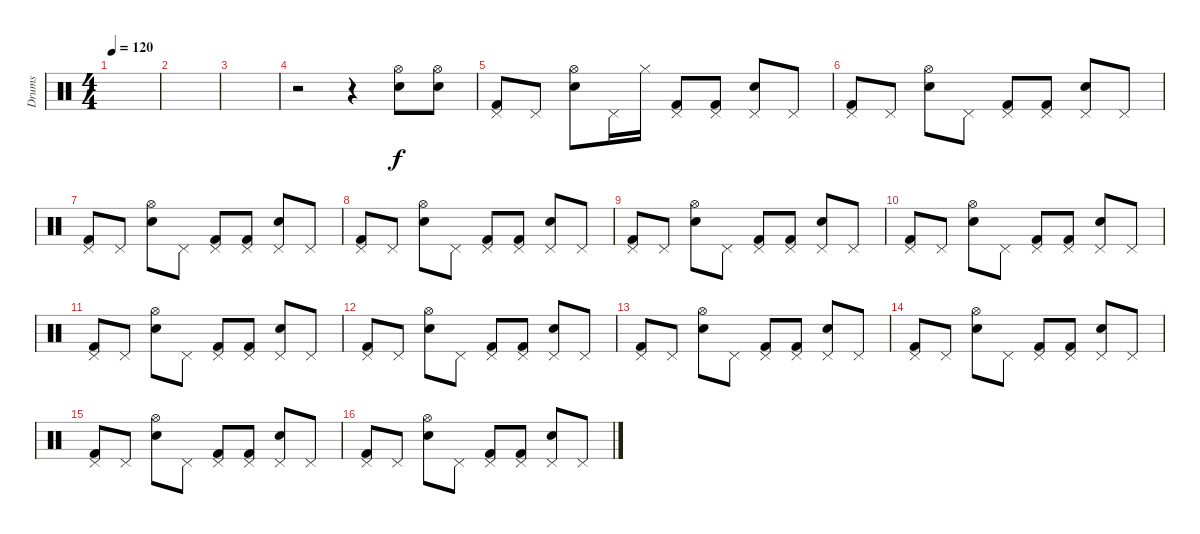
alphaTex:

\track ("Drums" "Drums") {instrument percussion}
\staff {score}
\articulation defaults
\ts (4 4)
\tempo 120
\clef neutral
\ks c
|
|
|
r.2 r.4 ("Hi-Hat (open)" "Electric Snare (hit)").8 ("Hi-Hat (open)" "Snare (hit) 2").8 |
("Pedal Hi-Hat (hit)" "Kick (hit) 2").8 "Pedal Hi-Hat (hit)".8 ("Hi-Hat (open)" "Snare (hit) 2").8 "Pedal Hi-Hat (hit)".16 "Hi-Hat (closed)".16 ("Pedal Hi-Hat (hit)" "Kick (hit) 2").8 ("Pedal Hi-Hat (hit)" "Kick (hit) 2").8 ("Pedal Hi-Hat (hit)" "Snare (hit) 2").8 "Pedal Hi-Hat (hit)".8 |
("Pedal Hi-Hat (hit)" "Kick (hit) 2").8 "Pedal Hi-Hat (hit)".8 ("Hi-Hat (open)" "Snare (hit) 2").8 "Pedal Hi-Hat (hit)".8 ("Pedal Hi-Hat (hit)" "Kick (hit) 2").8 ("Pedal Hi-Hat (hit)" "Kick (hit) 2").8 ("Pedal Hi-Hat (hit)" "Snare (hit) 2").8 "Pedal Hi-Hat (hit)".8 |
("Pedal Hi-Hat (hit)" "Kick (hit) 2").8 "Pedal Hi-Hat (hit)".8 ("Hi-Hat (open)" "Snare (hit) 2").8 "Pedal Hi-Hat (hit)".8 ("Pedal Hi-Hat (hit)" "Kick (hit) 2").8 ("Pedal Hi-Hat (hit)" "Kick (hit) 2").8 ("Pedal Hi-Hat (hit)" "Snare (hit) 2").8 "Pedal Hi-Hat (hit)".8 |
("Pedal Hi-Hat (hit)" "Kick (hit) 2").8 "Pedal Hi-Hat (hit)".8 ("Hi-Hat (open)" "Snare (hit) 2").8 "Pedal Hi-Hat (hit)".8 ("Pedal Hi-Hat (hit)" "Kick (hit) 2").8 ("Pedal Hi-Hat (hit)" "Kick (hit) 2").8 ("Pedal Hi-Hat (hit)" "Snare (hit) 2").8 "Pedal Hi-Hat (hit)".8 |
("Pedal Hi-Hat (hit)" "Kick (hit) 2").8 "Pedal Hi-Hat (hit)".8 ("Hi-Hat (open)" "Snare (hit) 2").8 "Pedal Hi-Hat (hit)".8 ("Pedal Hi-Hat (hit)" "Kick (hit) 2").8 ("Pedal Hi-Hat (hit)" "Kick (hit) 2").8 ("Pedal Hi-Hat (hit)" "Snare (hit) 2").8 "Pedal Hi-Hat (hit)".8 |
("Pedal Hi-Hat (hit)" "Kick (hit) 2").8 "Pedal Hi-Hat (hit)".8 ("Hi-Hat (open)" "Snare (hit) 2").8 "Pedal Hi-Hat (hit)".8 ("Pedal Hi-Hat (hit)" "Kick (hit) 2").8 ("Pedal Hi-Hat (hit)" "Kick (hit) 2").8 ("Pedal Hi-Hat (hit)" "Snare (hit) 2").8 "Pedal Hi-Hat (hit)".8 |
("Pedal Hi-Hat (hit)" "Kick (hit) 2").8 "Pedal Hi-Hat (hit)".8 ("Hi-Hat (open)" "Snare (hit) 2").8 "Pedal Hi-Hat (hit)".8 ("Pedal Hi-Hat (hit)" "Kick (hit) 2").8 ("Pedal Hi-Hat (hit)" "Kick (hit) 2").8 ("Pedal Hi-Hat (hit)" "Snare (hit) 2").8 "Pedal Hi-Hat (hit)".8 |
("Pedal Hi-Hat (hit)" "Kick (hit) 2").8 "Pedal Hi-Hat (hit)".8 ("Hi-Hat (open)" "Snare (hit) 2").8 "Pedal Hi-Hat (hit)".8 ("Pedal Hi-Hat (hit)" "Kick (hit) 2").8 ("Pedal Hi-Hat (hit)" "Kick (hit) 2").8 ("Pedal Hi-Hat (hit)" "Snare (hit) 2").8 "Pedal Hi-Hat (hit)".8 |
("Pedal Hi-Hat (hit)" "Kick (hit) 2").8 "Pedal Hi-Hat (hit)".8 ("Hi-Hat (open)" "Snare (hit) 2").8 "Pedal Hi-Hat (hit)".8 ("Pedal Hi-Hat (hit)" "Kick (hit) 2").8 ("Pedal Hi-Hat (hit)" "Kick (hit) 2").8 ("Pedal Hi-Hat (hit)" "Snare (hit) 2").8 "Pedal Hi-Hat (hit)".8 |
("Pedal Hi-Hat (hit)" "Kick (hit) 2").8 "Pedal Hi-Hat (hit)".8 ("Hi-Hat (open)" "Snare (hit) 2").8 "Pedal Hi-Hat (hit)".8 ("Pedal Hi-Hat (hit)" "Kick (hit) 2").8 ("Pedal Hi-Hat (hit)" "Kick (hit) 2").8 ("Pedal Hi-Hat (hit)" "Snare (hit) 2").8 "Pedal Hi-Hat (hit)".8 |
("Pedal Hi-Hat (hit)" "Kick (hit) 2").8 "Pedal Hi-Hat (hit)".8 ("Hi-Hat (open)" "Snare (hit) 2").8 "Pedal Hi-Hat (hit)".8 ("Pedal Hi-Hat (hit)" "Kick (hit) 2").8 ("Pedal Hi-Hat (hit)" "Kick (hit) 2").8 ("Pedal Hi-Hat (hit)" "Snare (hit) 2").8 "Pedal Hi-Hat (hit)".8 |
("Pedal Hi-Hat (hit)" "Kick (hit) 2").8 "Pedal Hi-Hat (hit)".8 ("Hi-Hat (open)" "Snare (hit) 2").8 "Pedal Hi-Hat (hit)".8 ("Pedal Hi-Hat (hit)" "Kick (hit) 2").8 ("Pedal Hi-Hat (hit)" "Kick (hit) 2").8 ("Pedal Hi-Hat (hit)" "Snare (hit) 2").8 "Pedal Hi-Hat (hit)".8
